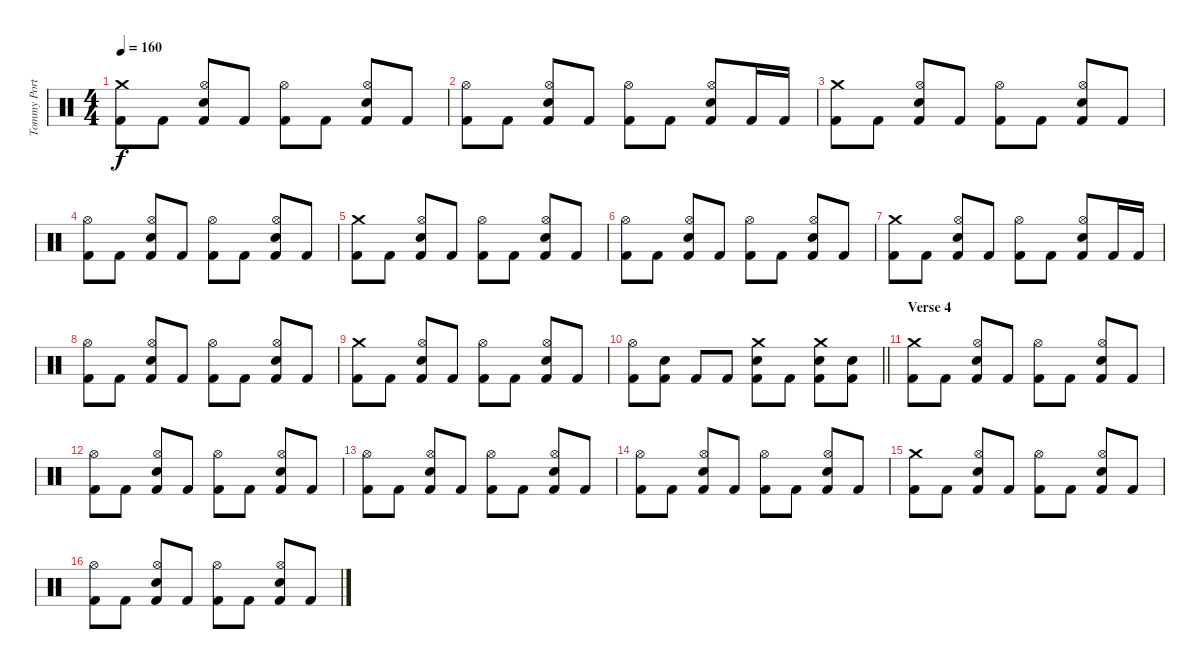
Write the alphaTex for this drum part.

\track ("Tommy Portino" "Tommy Port") {instrument percussion}
\staff {score}
\articulation defaults
\ts (4 4)
\tempo 160
\clef neutral
\ks c
("Crash medium (hit)" "Kick (hit) 2").8{dy f} "Kick (hit) 2".8 ("Hi-Hat (open)" "Snare (hit) 2" "Kick (hit) 2").8 "Kick (hit) 2".8 ("Hi-Hat (open)" "Kick (hit) 2").8 "Kick (hit) 2".8 ("Hi-Hat (open)" "Snare (hit) 2" "Kick (hit) 2").8 "Kick (hit) 2".8 |
("Hi-Hat (open)" "Kick (hit) 2").8 "Kick (hit) 2".8 ("Hi-Hat (open)" "Snare (hit) 2" "Kick (hit) 2").8 "Kick (hit) 2".8 ("Hi-Hat (open)" "Kick (hit) 2").8 "Kick (hit) 2".8 ("Hi-Hat (open)" "Snare (hit) 2" "Kick (hit) 2").8 "Kick (hit) 2".16 "Kick (hit) 2".16 |
("Crash medium (hit)" "Kick (hit) 2").8 "Kick (hit) 2".8 ("Hi-Hat (open)" "Snare (hit) 2" "Kick (hit) 2").8 "Kick (hit) 2".8 ("Hi-Hat (open)" "Kick (hit) 2").8 "Kick (hit) 2".8 ("Hi-Hat (open)" "Snare (hit) 2" "Kick (hit) 2").8 "Kick (hit) 2".8 |
("Hi-Hat (open)" "Kick (hit) 2").8 "Kick (hit) 2".8 ("Hi-Hat (open)" "Snare (hit) 2" "Kick (hit) 2").8 "Kick (hit) 2".8 ("Hi-Hat (open)" "Kick (hit) 2").8 "Kick (hit) 2".8 ("Hi-Hat (open)" "Snare (hit) 2" "Kick (hit) 2").8 "Kick (hit) 2".8 |
("Crash medium (hit)" "Kick (hit) 2").8 "Kick (hit) 2".8 ("Hi-Hat (open)" "Snare (hit) 2" "Kick (hit) 2").8 "Kick (hit) 2".8 ("Hi-Hat (open)" "Kick (hit) 2").8 "Kick (hit) 2".8 ("Hi-Hat (open)" "Snare (hit) 2" "Kick (hit) 2").8 "Kick (hit) 2".8 |
("Hi-Hat (open)" "Kick (hit) 2").8 "Kick (hit) 2".8 ("Hi-Hat (open)" "Snare (hit) 2" "Kick (hit) 2").8 "Kick (hit) 2".8 ("Hi-Hat (open)" "Kick (hit) 2").8 "Kick (hit) 2".8 ("Hi-Hat (open)" "Snare (hit) 2" "Kick (hit) 2").8 "Kick (hit) 2".8 |
("Crash medium (hit)" "Kick (hit) 2").8 "Kick (hit) 2".8 ("Hi-Hat (open)" "Snare (hit) 2" "Kick (hit) 2").8 "Kick (hit) 2".8 ("Hi-Hat (open)" "Kick (hit) 2").8 "Kick (hit) 2".8 ("Hi-Hat (open)" "Snare (hit) 2" "Kick (hit) 2").8 "Kick (hit) 2".16 "Kick (hit) 2".16 |
("Hi-Hat (open)" "Kick (hit) 2").8 "Kick (hit) 2".8 ("Hi-Hat (open)" "Snare (hit) 2" "Kick (hit) 2").8 "Kick (hit) 2".8 ("Hi-Hat (open)" "Kick (hit) 2").8 "Kick (hit) 2".8 ("Hi-Hat (open)" "Snare (hit) 2" "Kick (hit) 2").8 "Kick (hit) 2".8 |
("Crash medium (hit)" "Kick (hit) 2").8 "Kick (hit) 2".8 ("Hi-Hat (open)" "Snare (hit) 2" "Kick (hit) 2").8 "Kick (hit) 2".8 ("Hi-Hat (open)" "Kick (hit) 2").8 "Kick (hit) 2".8 ("Hi-Hat (open)" "Snare (hit) 2" "Kick (hit) 2").8 "Kick (hit) 2".8 |
\barLineRight lightlight
("Hi-Hat (open)" "Kick (hit) 2").8 ("Snare (hit) 2" "Kick (hit) 2").8 "Kick (hit) 2".8 "Kick (hit) 2".8 ("Crash medium (hit)" "Snare (hit) 2" "Kick (hit) 2").8 "Kick (hit) 2".8 ("Crash medium (hit)" "Snare (hit) 2" "Kick (hit) 2").8 ("Snare (hit) 2" "Kick (hit) 2").8 |
\section ("" "Verse 4")
("Crash medium (hit)" "Kick (hit) 2").8 "Kick (hit) 2".8 ("Hi-Hat (open)" "Snare (hit) 2" "Kick (hit) 2").8 "Kick (hit) 2".8 ("Hi-Hat (open)" "Kick (hit) 2").8 "Kick (hit) 2".8 ("Hi-Hat (open)" "Snare (hit) 2" "Kick (hit) 2").8 "Kick (hit) 2".8 |
("Hi-Hat (open)" "Kick (hit) 2").8 "Kick (hit) 2".8 ("Hi-Hat (open)" "Snare (hit) 2" "Kick (hit) 2").8 "Kick (hit) 2".8 ("Hi-Hat (open)" "Kick (hit) 2").8 "Kick (hit) 2".8 ("Hi-Hat (open)" "Snare (hit) 2" "Kick (hit) 2").8 "Kick (hit) 2".8 |
("Hi-Hat (open)" "Kick (hit) 2").8 "Kick (hit) 2".8 ("Hi-Hat (open)" "Snare (hit) 2" "Kick (hit) 2").8 "Kick (hit) 2".8 ("Hi-Hat (open)" "Kick (hit) 2").8 "Kick (hit) 2".8 ("Hi-Hat (open)" "Snare (hit) 2" "Kick (hit) 2").8 "Kick (hit) 2".8 |
("Hi-Hat (open)" "Kick (hit) 2").8 "Kick (hit) 2".8 ("Hi-Hat (open)" "Snare (hit) 2" "Kick (hit) 2").8 "Kick (hit) 2".8 ("Hi-Hat (open)" "Kick (hit) 2").8 "Kick (hit) 2".8 ("Hi-Hat (open)" "Snare (hit) 2" "Kick (hit) 2").8 "Kick (hit) 2".8 |
("Crash medium (hit)" "Kick (hit) 2").8 "Kick (hit) 2".8 ("Hi-Hat (open)" "Snare (hit) 2" "Kick (hit) 2").8 "Kick (hit) 2".8 ("Hi-Hat (open)" "Kick (hit) 2").8 "Kick (hit) 2".8 ("Hi-Hat (open)" "Snare (hit) 2" "Kick (hit) 2").8 "Kick (hit) 2".8 |
("Hi-Hat (open)" "Kick (hit) 2").8 "Kick (hit) 2".8 ("Hi-Hat (open)" "Snare (hit) 2" "Kick (hit) 2").8 "Kick (hit) 2".8 ("Hi-Hat (open)" "Kick (hit) 2").8 "Kick (hit) 2".8 ("Hi-Hat (open)" "Snare (hit) 2" "Kick (hit) 2").8 "Kick (hit) 2".8
